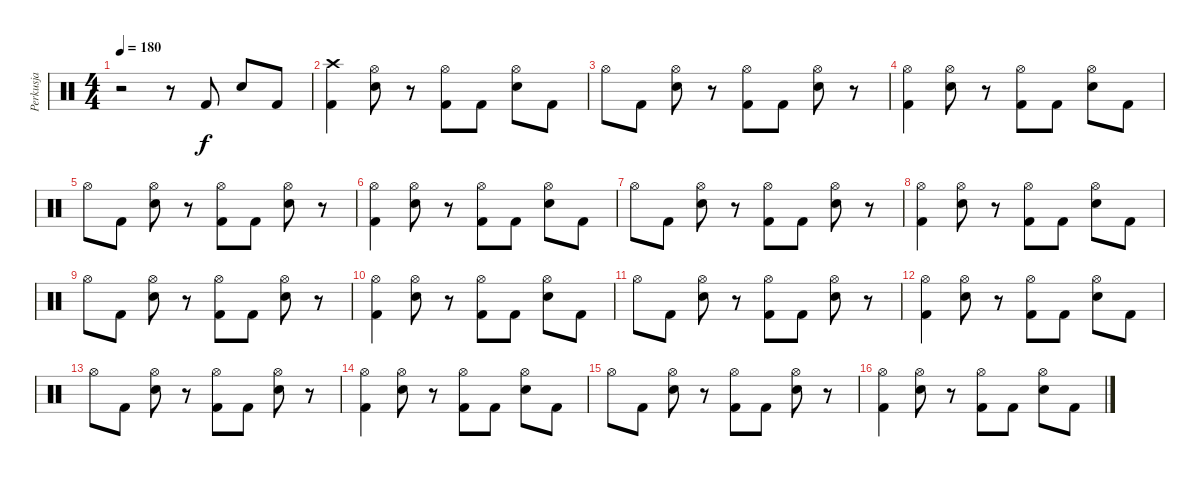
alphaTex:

\track ("Perkusja" "Perkusja") {instrument percussion}
\staff {score}
\articulation defaults
\ts (4 4)
\tempo 180
\clef neutral
\ks c
r.2{dy f} r.8 "Kick (hit) 2".8 "Electric Snare (hit)".8 "Kick (hit) 2".8 |
("Crash high (hit)" "Kick (hit) 2").4 ("Hi-Hat (open)" "Electric Snare (hit)").8 r.8 ("Hi-Hat (open)" "Kick (hit) 2").8 "Kick (hit) 2".8 ("Hi-Hat (open)" "Electric Snare (hit)").8 "Kick (hit) 2".8 |
"Hi-Hat (open)".8 "Kick (hit) 2".8 ("Hi-Hat (open)" "Electric Snare (hit)").8 r.8 ("Hi-Hat (open)" "Kick (hit) 2").8 "Kick (hit) 2".8 ("Hi-Hat (open)" "Electric Snare (hit)").8 r.8 |
("Hi-Hat (open)" "Kick (hit) 2").4 ("Hi-Hat (open)" "Electric Snare (hit)").8 r.8 ("Hi-Hat (open)" "Kick (hit) 2").8 "Kick (hit) 2".8 ("Hi-Hat (open)" "Electric Snare (hit)").8 "Kick (hit) 2".8 |
"Hi-Hat (open)".8 "Kick (hit) 2".8 ("Hi-Hat (open)" "Electric Snare (hit)").8 r.8 ("Hi-Hat (open)" "Kick (hit) 2").8 "Kick (hit) 2".8 ("Hi-Hat (open)" "Electric Snare (hit)").8 r.8 |
("Hi-Hat (open)" "Kick (hit) 2").4 ("Hi-Hat (open)" "Electric Snare (hit)").8 r.8 ("Hi-Hat (open)" "Kick (hit) 2").8 "Kick (hit) 2".8 ("Hi-Hat (open)" "Electric Snare (hit)").8 "Kick (hit) 2".8 |
"Hi-Hat (open)".8 "Kick (hit) 2".8 ("Hi-Hat (open)" "Electric Snare (hit)").8 r.8 ("Hi-Hat (open)" "Kick (hit) 2").8 "Kick (hit) 2".8 ("Hi-Hat (open)" "Electric Snare (hit)").8 r.8 |
("Hi-Hat (open)" "Kick (hit) 2").4 ("Hi-Hat (open)" "Electric Snare (hit)").8 r.8 ("Hi-Hat (open)" "Kick (hit) 2").8 "Kick (hit) 2".8 ("Hi-Hat (open)" "Electric Snare (hit)").8 "Kick (hit) 2".8 |
"Hi-Hat (open)".8 "Kick (hit) 2".8 ("Hi-Hat (open)" "Electric Snare (hit)").8 r.8 ("Hi-Hat (open)" "Kick (hit) 2").8 "Kick (hit) 2".8 ("Hi-Hat (open)" "Electric Snare (hit)").8 r.8 |
("Hi-Hat (open)" "Kick (hit) 2").4 ("Hi-Hat (open)" "Electric Snare (hit)").8 r.8 ("Hi-Hat (open)" "Kick (hit) 2").8 "Kick (hit) 2".8 ("Hi-Hat (open)" "Electric Snare (hit)").8 "Kick (hit) 2".8 |
"Hi-Hat (open)".8 "Kick (hit) 2".8 ("Hi-Hat (open)" "Electric Snare (hit)").8 r.8 ("Hi-Hat (open)" "Kick (hit) 2").8 "Kick (hit) 2".8 ("Hi-Hat (open)" "Electric Snare (hit)").8 r.8 |
("Hi-Hat (open)" "Kick (hit) 2").4 ("Hi-Hat (open)" "Electric Snare (hit)").8 r.8 ("Hi-Hat (open)" "Kick (hit) 2").8 "Kick (hit) 2".8 ("Hi-Hat (open)" "Electric Snare (hit)").8 "Kick (hit) 2".8 |
"Hi-Hat (open)".8 "Kick (hit) 2".8 ("Hi-Hat (open)" "Electric Snare (hit)").8 r.8 ("Hi-Hat (open)" "Kick (hit) 2").8 "Kick (hit) 2".8 ("Hi-Hat (open)" "Electric Snare (hit)").8 r.8 |
("Hi-Hat (open)" "Kick (hit) 2").4 ("Hi-Hat (open)" "Electric Snare (hit)").8 r.8 ("Hi-Hat (open)" "Kick (hit) 2").8 "Kick (hit) 2".8 ("Hi-Hat (open)" "Electric Snare (hit)").8 "Kick (hit) 2".8 |
"Hi-Hat (open)".8 "Kick (hit) 2".8 ("Hi-Hat (open)" "Electric Snare (hit)").8 r.8 ("Hi-Hat (open)" "Kick (hit) 2").8 "Kick (hit) 2".8 ("Hi-Hat (open)" "Electric Snare (hit)").8 r.8 |
("Hi-Hat (open)" "Kick (hit) 2").4 ("Hi-Hat (open)" "Electric Snare (hit)").8 r.8 ("Hi-Hat (open)" "Kick (hit) 2").8 "Kick (hit) 2".8 ("Hi-Hat (open)" "Electric Snare (hit)").8 "Kick (hit) 2".8
